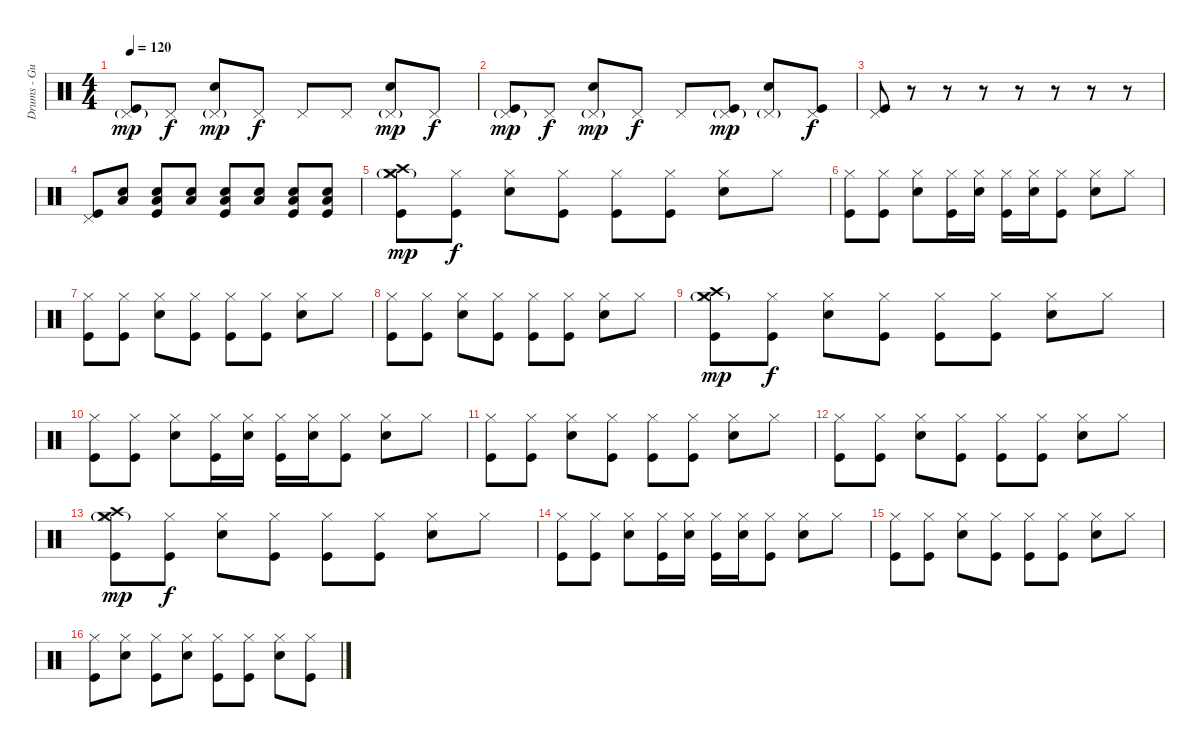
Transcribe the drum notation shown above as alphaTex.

\track ("Drums - Gustav" "Drums - Gu") {instrument percussion}
\staff {score}
\articulation defaults
\ts (4 4)
\tempo 120
\clef neutral
\ks c
("Kick (hit)" "Pedal Hi-Hat (hit)"{g}).8{dy mp} "Pedal Hi-Hat (hit)".8{dy f} ("Pedal Hi-Hat (hit)"{g} "Snare (hit) 2").8{dy mp} "Pedal Hi-Hat (hit)".8{dy f} "Pedal Hi-Hat (hit)".8 "Pedal Hi-Hat (hit)".8 ("Pedal Hi-Hat (hit)"{g} "Snare (hit) 2").8{dy mp} "Pedal Hi-Hat (hit)".8{dy f} |
("Kick (hit)" "Pedal Hi-Hat (hit)"{g}).8{dy mp} "Pedal Hi-Hat (hit)".8{dy f} ("Pedal Hi-Hat (hit)"{g} "Snare (hit) 2").8{dy mp} "Pedal Hi-Hat (hit)".8{dy f} "Pedal Hi-Hat (hit)".8 ("Kick (hit)" "Pedal Hi-Hat (hit)"{g}).8{dy mp} ("Pedal Hi-Hat (hit)"{g} "Snare (hit) 2").8 ("Kick (hit)" "Pedal Hi-Hat (hit)").8{dy f} |
("Kick (hit)" "Pedal Hi-Hat (hit)").8 r.8 r.8 r.8 r.8 r.8 r.8 r.8 |
("Kick (hit)" "Pedal Hi-Hat (hit)").8{volume 16} ("Snare (hit) 2" "Low Floor Tom (hit)").8 ("Kick (hit)" "Snare (hit) 2" "Low Floor Tom (hit)").8 ("Snare (hit) 2" "Low Floor Tom (hit)").8 ("Kick (hit)" "Snare (hit) 2" "Low Floor Tom (hit)").8 ("Snare (hit) 2" "Low Floor Tom (hit)").8 ("Kick (hit)" "Snare (hit) 2" "Low Floor Tom (hit)").8 ("Kick (hit)" "Snare (hit) 2" "Low Floor Tom (hit)").8 |
("Kick (hit)" "Hi-Hat (closed)"{g} "Crash high (hit)" "Crash medium (hit)").8{dy mp} ("Kick (hit)" "Hi-Hat (closed)").8{dy f} ("Hi-Hat (closed)" "Snare (hit) 2").8 ("Kick (hit)" "Hi-Hat (closed)").8 ("Kick (hit)" "Hi-Hat (closed)").8 ("Kick (hit)" "Hi-Hat (closed)").8 ("Hi-Hat (closed)" "Snare (hit) 2").8 "Hi-Hat (closed)".8 |
("Kick (hit)" "Hi-Hat (closed)").8 ("Kick (hit)" "Hi-Hat (closed)").8 ("Hi-Hat (closed)" "Snare (hit) 2").8 ("Kick (hit)" "Hi-Hat (closed)").16 ("Hi-Hat (closed)" "Snare (hit) 2").16 ("Kick (hit)" "Hi-Hat (closed)").16 ("Hi-Hat (closed)" "Snare (hit) 2").16 ("Kick (hit)" "Hi-Hat (closed)").8 ("Hi-Hat (closed)" "Snare (hit) 2").8 "Hi-Hat (closed)".8 |
("Kick (hit)" "Hi-Hat (closed)").8 ("Kick (hit)" "Hi-Hat (closed)").8 ("Hi-Hat (closed)" "Snare (hit) 2").8 ("Kick (hit)" "Hi-Hat (closed)").8 ("Kick (hit)" "Hi-Hat (closed)").8 ("Kick (hit)" "Hi-Hat (closed)").8 ("Hi-Hat (closed)" "Snare (hit) 2").8 "Hi-Hat (closed)".8 |
("Kick (hit)" "Hi-Hat (closed)").8 ("Kick (hit)" "Hi-Hat (closed)").8 ("Hi-Hat (closed)" "Snare (hit) 2").8 ("Kick (hit)" "Hi-Hat (closed)").8 ("Kick (hit)" "Hi-Hat (closed)").8 ("Kick (hit)" "Hi-Hat (closed)").8 ("Hi-Hat (closed)" "Snare (hit) 2").8 "Hi-Hat (closed)".8 |
("Kick (hit)" "Hi-Hat (closed)"{g} "Crash high (hit)" "Crash medium (hit)").8{dy mp} ("Kick (hit)" "Hi-Hat (closed)").8{dy f} ("Hi-Hat (closed)" "Snare (hit) 2").8 ("Kick (hit)" "Hi-Hat (closed)").8 ("Kick (hit)" "Hi-Hat (closed)").8 ("Kick (hit)" "Hi-Hat (closed)").8 ("Hi-Hat (closed)" "Snare (hit) 2").8 "Hi-Hat (closed)".8 |
("Kick (hit)" "Hi-Hat (closed)").8 ("Kick (hit)" "Hi-Hat (closed)").8 ("Hi-Hat (closed)" "Snare (hit) 2").8 ("Kick (hit)" "Hi-Hat (closed)").16 ("Hi-Hat (closed)" "Snare (hit) 2").16 ("Kick (hit)" "Hi-Hat (closed)").16 ("Hi-Hat (closed)" "Snare (hit) 2").16 ("Kick (hit)" "Hi-Hat (closed)").8 ("Hi-Hat (closed)" "Snare (hit) 2").8 "Hi-Hat (closed)".8 |
("Kick (hit)" "Hi-Hat (closed)").8 ("Kick (hit)" "Hi-Hat (closed)").8 ("Hi-Hat (closed)" "Snare (hit) 2").8 ("Kick (hit)" "Hi-Hat (closed)").8 ("Kick (hit)" "Hi-Hat (closed)").8 ("Kick (hit)" "Hi-Hat (closed)").8 ("Hi-Hat (closed)" "Snare (hit) 2").8 "Hi-Hat (closed)".8 |
("Kick (hit)" "Hi-Hat (closed)").8 ("Kick (hit)" "Hi-Hat (closed)").8 ("Hi-Hat (closed)" "Snare (hit) 2").8 ("Kick (hit)" "Hi-Hat (closed)").8 ("Kick (hit)" "Hi-Hat (closed)").8 ("Kick (hit)" "Hi-Hat (closed)").8 ("Hi-Hat (closed)" "Snare (hit) 2").8 "Hi-Hat (closed)".8 |
("Kick (hit)" "Hi-Hat (closed)"{g} "Crash high (hit)" "Crash medium (hit)").8{dy mp} ("Kick (hit)" "Hi-Hat (closed)").8{dy f} ("Hi-Hat (closed)" "Snare (hit) 2").8 ("Kick (hit)" "Hi-Hat (closed)").8 ("Kick (hit)" "Hi-Hat (closed)").8 ("Kick (hit)" "Hi-Hat (closed)").8 ("Hi-Hat (closed)" "Snare (hit) 2").8 "Hi-Hat (closed)".8 |
("Kick (hit)" "Hi-Hat (closed)").8 ("Kick (hit)" "Hi-Hat (closed)").8 ("Hi-Hat (closed)" "Snare (hit) 2").8 ("Kick (hit)" "Hi-Hat (closed)").16 ("Hi-Hat (closed)" "Snare (hit) 2").16 ("Kick (hit)" "Hi-Hat (closed)").16 ("Hi-Hat (closed)" "Snare (hit) 2").16 ("Kick (hit)" "Hi-Hat (closed)").8 ("Hi-Hat (closed)" "Snare (hit) 2").8 "Hi-Hat (closed)".8 |
("Kick (hit)" "Hi-Hat (closed)").8 ("Kick (hit)" "Hi-Hat (closed)").8 ("Hi-Hat (closed)" "Snare (hit) 2").8 ("Kick (hit)" "Hi-Hat (closed)").8 ("Kick (hit)" "Hi-Hat (closed)").8 ("Kick (hit)" "Hi-Hat (closed)").8 ("Hi-Hat (closed)" "Snare (hit) 2").8 "Hi-Hat (closed)".8 |
("Kick (hit)" "Hi-Hat (closed)").8 ("Hi-Hat (closed)" "Snare (hit) 2").8 ("Kick (hit)" "Hi-Hat (closed)").8 ("Hi-Hat (closed)" "Snare (hit) 2").8 ("Kick (hit)" "Hi-Hat (closed)").8 ("Kick (hit)" "Hi-Hat (closed)").8 ("Hi-Hat (closed)" "Snare (hit) 2").8 ("Kick (hit)" "Hi-Hat (closed)").8
